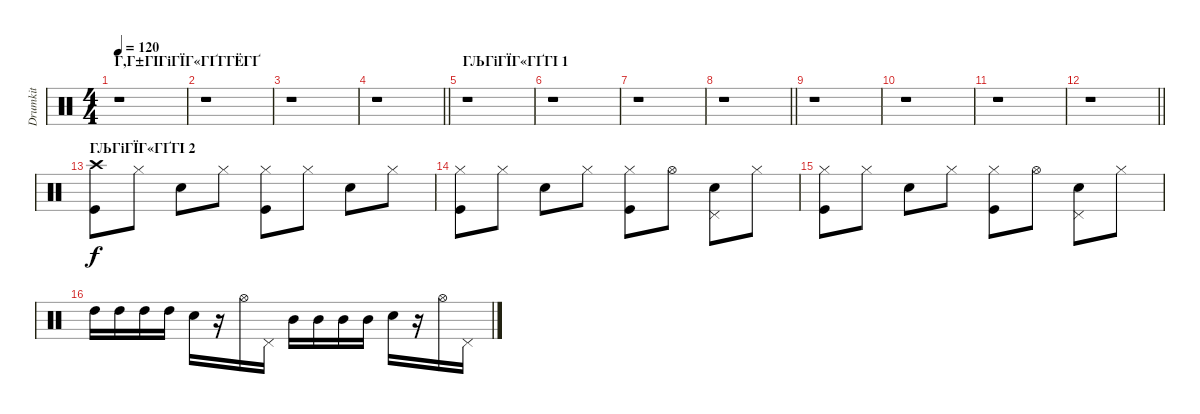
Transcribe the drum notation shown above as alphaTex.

\track ("Drumkit" "Drumkit") {instrument percussion}
\staff {score}
\articulation defaults
\ts (4 4)
\section ("" "Г‚Г±ГІГіГЇГ«ГҐГ­ГЁГҐ")
\tempo 120
\clef neutral
\ks c
r.1{dy f} |
r.1 |
r.1 |
\barLineRight lightlight
r.1 |
\section ("" "ГЉГіГЇГ«ГҐГІ 1")
r.1 |
r.1 |
r.1 |
\barLineRight lightlight
r.1 |
r.1 |
r.1 |
r.1 |
\barLineRight lightlight
r.1 |
\section ("" "ГЉГіГЇГ«ГҐГІ 2")
("Crash high (hit)" "Kick (hit)").8 "Hi-Hat (closed)".8 "Snare (hit) 2".8 "Hi-Hat (closed)".8 ("Hi-Hat (closed)" "Kick (hit)").8 "Hi-Hat (closed)".8 "Snare (hit) 2".8 "Hi-Hat (closed)".8 |
("Hi-Hat (closed)" "Kick (hit)").8 "Hi-Hat (closed)".8 "Snare (hit) 2".8 "Hi-Hat (closed)".8 ("Hi-Hat (closed)" "Kick (hit)").8 "Hi-Hat (open)".8 ("Pedal Hi-Hat (hit)" "Snare (hit) 2").8 "Hi-Hat (closed)".8 |
("Hi-Hat (closed)" "Kick (hit)").8 "Hi-Hat (closed)".8 "Snare (hit) 2".8 "Hi-Hat (closed)".8 ("Hi-Hat (closed)" "Kick (hit)").8 "Hi-Hat (open)".8 ("Pedal Hi-Hat (hit)" "Snare (hit) 2").8 "Hi-Hat (closed)".8 |
"High Tom (hit)".16 "High Tom (hit)".16 "High Tom (hit)".16 "High Tom (hit)".16 "Snare (hit) 2".16 r.16 "Hi-Hat (open)".16 "Pedal Hi-Hat (hit)".16 "Mid Tom (hit)".16 "Mid Tom (hit)".16 "Mid Tom (hit)".16 "Mid Tom (hit)".16 "Snare (hit) 2".16 r.16 "Hi-Hat (open)".16 "Pedal Hi-Hat (hit)".16
